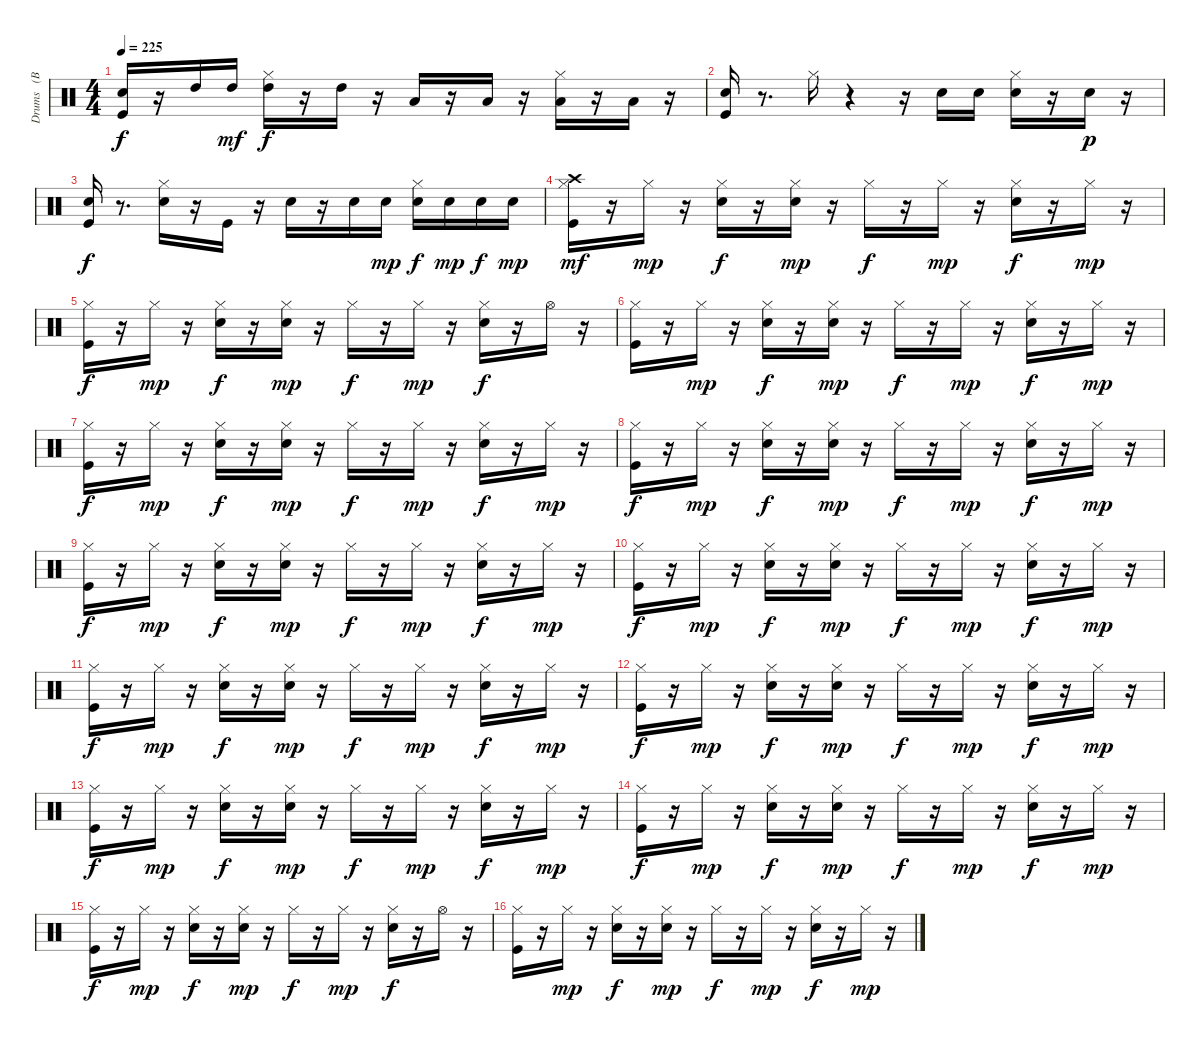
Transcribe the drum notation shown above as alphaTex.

\track ("Drums   (BB)" "Drums   (B") {instrument percussion}
\staff {score}
\articulation defaults
\ts (4 4)
\tempo 225
\clef neutral
\ks c
("Kick (hit)" "Snare (hit) 2").16{dy f} r.16 "High Tom (hit)".16 "High Tom (hit)".16{dy mf} ("Hi-Hat (closed)" "High Tom (hit)").16{dy f} r.16 "High Tom (hit)".16 r.16 "Low Tom (hit)".16 r.16 "Low Tom (hit)".16 r.16 ("Hi-Hat (closed)" "Low Floor Tom (hit)").16 r.16 "Low Floor Tom (hit)".16 r.16 |
("Kick (hit)" "Snare (hit) 2").16 r.8{d} "Hi-Hat (closed)".16 r.4 r.16 "Snare (hit) 2".16 "Snare (hit) 2".16 ("Snare (hit) 2" "Hi-Hat (closed)").16 r.16 "Snare (hit) 2".16{dy p} r.16 |
("Kick (hit)" "Snare (hit) 2").16{dy f} r.8{d} ("Snare (hit) 2" "Hi-Hat (closed)").16 r.16 "Kick (hit)".16 r.16 "Snare (hit) 2".16 r.16 "Snare (hit) 2".16 "Snare (hit) 2".16{dy mp} ("Snare (hit) 2" "Hi-Hat (closed)").16{dy f} "Snare (hit) 2".16{dy mp} "Snare (hit) 2".16{dy f} "Snare (hit) 2".16{dy mp} |
("Kick (hit)" "Hi-Hat (closed)" "Crash high (hit)").16{dy mf} r.16 "Hi-Hat (closed)".16{dy mp} r.16 ("Snare (hit) 2" "Hi-Hat (closed)").16{dy f} r.16 ("Snare (hit) 2" "Hi-Hat (closed)").16{dy mp} r.16 "Hi-Hat (closed)".16{dy f} r.16 "Hi-Hat (closed)".16{dy mp} r.16 ("Snare (hit) 2" "Hi-Hat (closed)").16{dy f} r.16 "Hi-Hat (closed)".16{dy mp} r.16 |
("Kick (hit)" "Hi-Hat (closed)").16{dy f} r.16 "Hi-Hat (closed)".16{dy mp} r.16 ("Snare (hit) 2" "Hi-Hat (closed)").16{dy f} r.16 ("Snare (hit) 2" "Hi-Hat (closed)").16{dy mp} r.16 "Hi-Hat (closed)".16{dy f} r.16 "Hi-Hat (closed)".16{dy mp} r.16 ("Snare (hit) 2" "Hi-Hat (closed)").16{dy f} r.16 "Hi-Hat (open)".16 r.16 |
("Kick (hit)" "Hi-Hat (closed)").16 r.16 "Hi-Hat (closed)".16{dy mp} r.16 ("Snare (hit) 2" "Hi-Hat (closed)").16{dy f} r.16 ("Snare (hit) 2" "Hi-Hat (closed)").16{dy mp} r.16 "Hi-Hat (closed)".16{dy f} r.16 "Hi-Hat (closed)".16{dy mp} r.16 ("Snare (hit) 2" "Hi-Hat (closed)").16{dy f} r.16 "Hi-Hat (closed)".16{dy mp} r.16 |
("Kick (hit)" "Hi-Hat (closed)").16{dy f} r.16 "Hi-Hat (closed)".16{dy mp} r.16 ("Snare (hit) 2" "Hi-Hat (closed)").16{dy f} r.16 ("Snare (hit) 2" "Hi-Hat (closed)").16{dy mp} r.16 "Hi-Hat (closed)".16{dy f} r.16 "Hi-Hat (closed)".16{dy mp} r.16 ("Snare (hit) 2" "Hi-Hat (closed)").16{dy f} r.16 "Hi-Hat (closed)".16{dy mp} r.16 |
("Kick (hit)" "Hi-Hat (closed)").16{dy f} r.16 "Hi-Hat (closed)".16{dy mp} r.16 ("Snare (hit) 2" "Hi-Hat (closed)").16{dy f} r.16 ("Snare (hit) 2" "Hi-Hat (closed)").16{dy mp} r.16 "Hi-Hat (closed)".16{dy f} r.16 "Hi-Hat (closed)".16{dy mp} r.16 ("Snare (hit) 2" "Hi-Hat (closed)").16{dy f} r.16 "Hi-Hat (closed)".16{dy mp} r.16 |
("Kick (hit)" "Hi-Hat (closed)").16{dy f} r.16 "Hi-Hat (closed)".16{dy mp} r.16 ("Snare (hit) 2" "Hi-Hat (closed)").16{dy f} r.16 ("Snare (hit) 2" "Hi-Hat (closed)").16{dy mp} r.16 "Hi-Hat (closed)".16{dy f} r.16 "Hi-Hat (closed)".16{dy mp} r.16 ("Snare (hit) 2" "Hi-Hat (closed)").16{dy f} r.16 "Hi-Hat (closed)".16{dy mp} r.16 |
("Kick (hit)" "Hi-Hat (closed)").16{dy f} r.16 "Hi-Hat (closed)".16{dy mp} r.16 ("Snare (hit) 2" "Hi-Hat (closed)").16{dy f} r.16 ("Snare (hit) 2" "Hi-Hat (closed)").16{dy mp} r.16 "Hi-Hat (closed)".16{dy f} r.16 "Hi-Hat (closed)".16{dy mp} r.16 ("Snare (hit) 2" "Hi-Hat (closed)").16{dy f} r.16 "Hi-Hat (closed)".16{dy mp} r.16 |
("Kick (hit)" "Hi-Hat (closed)").16{dy f} r.16 "Hi-Hat (closed)".16{dy mp} r.16 ("Snare (hit) 2" "Hi-Hat (closed)").16{dy f} r.16 ("Snare (hit) 2" "Hi-Hat (closed)").16{dy mp} r.16 "Hi-Hat (closed)".16{dy f} r.16 "Hi-Hat (closed)".16{dy mp} r.16 ("Snare (hit) 2" "Hi-Hat (closed)").16{dy f} r.16 "Hi-Hat (closed)".16{dy mp} r.16 |
("Kick (hit)" "Hi-Hat (closed)").16{dy f} r.16 "Hi-Hat (closed)".16{dy mp} r.16 ("Snare (hit) 2" "Hi-Hat (closed)").16{dy f} r.16 ("Snare (hit) 2" "Hi-Hat (closed)").16{dy mp} r.16 "Hi-Hat (closed)".16{dy f} r.16 "Hi-Hat (closed)".16{dy mp} r.16 ("Snare (hit) 2" "Hi-Hat (closed)").16{dy f} r.16 "Hi-Hat (closed)".16{dy mp} r.16 |
("Kick (hit)" "Hi-Hat (closed)").16{dy f} r.16 "Hi-Hat (closed)".16{dy mp} r.16 ("Snare (hit) 2" "Hi-Hat (closed)").16{dy f} r.16 ("Snare (hit) 2" "Hi-Hat (closed)").16{dy mp} r.16 "Hi-Hat (closed)".16{dy f} r.16 "Hi-Hat (closed)".16{dy mp} r.16 ("Snare (hit) 2" "Hi-Hat (closed)").16{dy f} r.16 "Hi-Hat (closed)".16{dy mp} r.16 |
("Kick (hit)" "Hi-Hat (closed)").16{dy f} r.16 "Hi-Hat (closed)".16{dy mp} r.16 ("Snare (hit) 2" "Hi-Hat (closed)").16{dy f} r.16 ("Snare (hit) 2" "Hi-Hat (closed)").16{dy mp} r.16 "Hi-Hat (closed)".16{dy f} r.16 "Hi-Hat (closed)".16{dy mp} r.16 ("Snare (hit) 2" "Hi-Hat (closed)").16{dy f} r.16 "Hi-Hat (closed)".16{dy mp} r.16 |
("Kick (hit)" "Hi-Hat (closed)").16{dy f} r.16 "Hi-Hat (closed)".16{dy mp} r.16 ("Snare (hit) 2" "Hi-Hat (closed)").16{dy f} r.16 ("Snare (hit) 2" "Hi-Hat (closed)").16{dy mp} r.16 "Hi-Hat (closed)".16{dy f} r.16 "Hi-Hat (closed)".16{dy mp} r.16 ("Snare (hit) 2" "Hi-Hat (closed)").16{dy f} r.16 "Hi-Hat (open)".16 r.16 |
("Kick (hit)" "Hi-Hat (closed)").16 r.16 "Hi-Hat (closed)".16{dy mp} r.16 ("Snare (hit) 2" "Hi-Hat (closed)").16{dy f} r.16 ("Snare (hit) 2" "Hi-Hat (closed)").16{dy mp} r.16 "Hi-Hat (closed)".16{dy f} r.16 "Hi-Hat (closed)".16{dy mp} r.16 ("Snare (hit) 2" "Hi-Hat (closed)").16{dy f} r.16 "Hi-Hat (closed)".16{dy mp} r.16
